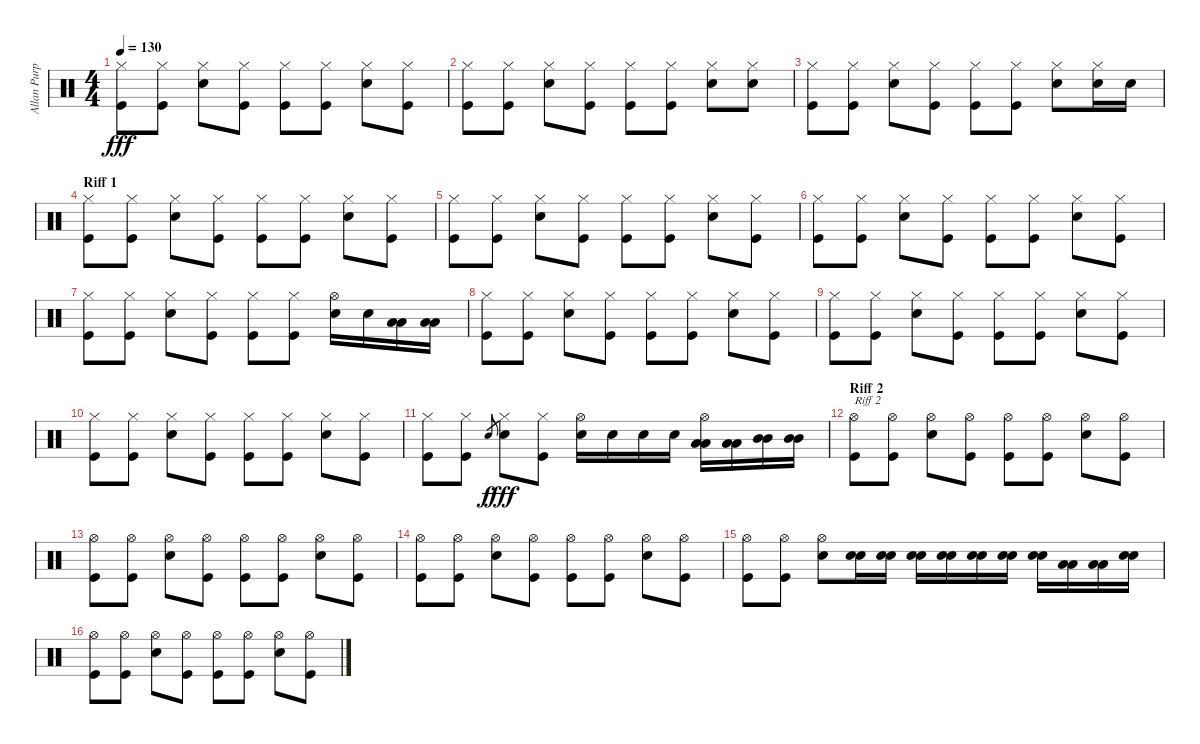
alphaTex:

\track ("Allan Purple" "Allan Purp") {instrument percussion}
\staff {score}
\articulation defaults
\ts (4 4)
\tempo 130
\clef neutral
\ks c
("Hi-Hat (closed)" "Kick (hit)").8{dy fff} ("Hi-Hat (closed)" "Kick (hit)").8 ("Hi-Hat (closed)" "Electric Snare (hit)").8 ("Hi-Hat (closed)" "Kick (hit)").8 ("Hi-Hat (closed)" "Kick (hit)").8 ("Hi-Hat (closed)" "Kick (hit)").8 ("Hi-Hat (closed)" "Electric Snare (hit)").8 ("Hi-Hat (closed)" "Kick (hit)").8 |
("Hi-Hat (closed)" "Kick (hit)").8 ("Hi-Hat (closed)" "Kick (hit)").8 ("Hi-Hat (closed)" "Electric Snare (hit)").8 ("Hi-Hat (closed)" "Kick (hit)").8 ("Hi-Hat (closed)" "Kick (hit)").8 ("Hi-Hat (closed)" "Kick (hit)").8 ("Hi-Hat (closed)" "Electric Snare (hit)").8 ("Hi-Hat (closed)" "Electric Snare (hit)").8 |
("Hi-Hat (closed)" "Kick (hit)").8 ("Hi-Hat (closed)" "Kick (hit)").8 ("Hi-Hat (closed)" "Electric Snare (hit)").8 ("Hi-Hat (closed)" "Kick (hit)").8 ("Hi-Hat (closed)" "Kick (hit)").8 ("Hi-Hat (closed)" "Kick (hit)").8 ("Hi-Hat (closed)" "Electric Snare (hit)").8 ("Hi-Hat (closed)" "Electric Snare (hit)").16 "Electric Snare (hit)".16 |
\section ("" "Riff 1")
("Hi-Hat (closed)" "Kick (hit)").8 ("Hi-Hat (closed)" "Kick (hit)").8 ("Hi-Hat (closed)" "Electric Snare (hit)").8 ("Hi-Hat (closed)" "Kick (hit)").8 ("Hi-Hat (closed)" "Kick (hit)").8 ("Hi-Hat (closed)" "Kick (hit)").8 ("Hi-Hat (closed)" "Electric Snare (hit)").8 ("Hi-Hat (closed)" "Kick (hit)").8 |
("Hi-Hat (closed)" "Kick (hit)").8 ("Hi-Hat (closed)" "Kick (hit)").8 ("Hi-Hat (closed)" "Electric Snare (hit)").8 ("Hi-Hat (closed)" "Kick (hit)").8 ("Hi-Hat (closed)" "Kick (hit)").8 ("Hi-Hat (closed)" "Kick (hit)").8 ("Hi-Hat (closed)" "Electric Snare (hit)").8 ("Hi-Hat (closed)" "Kick (hit)").8 |
("Hi-Hat (closed)" "Kick (hit)").8 ("Hi-Hat (closed)" "Kick (hit)").8 ("Hi-Hat (closed)" "Electric Snare (hit)").8 ("Hi-Hat (closed)" "Kick (hit)").8 ("Hi-Hat (closed)" "Kick (hit)").8 ("Hi-Hat (closed)" "Kick (hit)").8 ("Hi-Hat (closed)" "Electric Snare (hit)").8 ("Hi-Hat (closed)" "Kick (hit)").8 |
("Hi-Hat (closed)" "Kick (hit)").8 ("Hi-Hat (closed)" "Kick (hit)").8 ("Hi-Hat (closed)" "Electric Snare (hit)").8 ("Hi-Hat (closed)" "Kick (hit)").8 ("Hi-Hat (closed)" "Kick (hit)").8 ("Hi-Hat (closed)" "Kick (hit)").8 ("Hi-Hat (open)" "Electric Snare (hit)").16 "Electric Snare (hit)".16 ("Low Tom (hit)" "Low Tom (hit)").16 ("Low Tom (hit)" "Low Tom (hit)").16 |
("Hi-Hat (closed)" "Kick (hit)").8 ("Hi-Hat (closed)" "Kick (hit)").8 ("Hi-Hat (closed)" "Electric Snare (hit)").8 ("Hi-Hat (closed)" "Kick (hit)").8 ("Hi-Hat (closed)" "Kick (hit)").8 ("Hi-Hat (closed)" "Kick (hit)").8 ("Hi-Hat (closed)" "Electric Snare (hit)").8 ("Hi-Hat (closed)" "Kick (hit)").8 |
("Hi-Hat (closed)" "Kick (hit)").8 ("Hi-Hat (closed)" "Kick (hit)").8 ("Hi-Hat (closed)" "Electric Snare (hit)").8 ("Hi-Hat (closed)" "Kick (hit)").8 ("Hi-Hat (closed)" "Kick (hit)").8 ("Hi-Hat (closed)" "Kick (hit)").8 ("Hi-Hat (closed)" "Electric Snare (hit)").8 ("Hi-Hat (closed)" "Kick (hit)").8 |
("Hi-Hat (closed)" "Kick (hit)").8 ("Hi-Hat (closed)" "Kick (hit)").8 ("Hi-Hat (closed)" "Electric Snare (hit)").8 ("Hi-Hat (closed)" "Kick (hit)").8 ("Hi-Hat (closed)" "Kick (hit)").8 ("Hi-Hat (closed)" "Kick (hit)").8 ("Hi-Hat (closed)" "Electric Snare (hit)").8 ("Hi-Hat (closed)" "Kick (hit)").8 |
("Hi-Hat (closed)" "Kick (hit)").8 ("Hi-Hat (closed)" "Kick (hit)").8 "Electric Snare (hit)".8{gr dy f} ("Hi-Hat (closed)" "Electric Snare (hit)").8{dy fff} ("Hi-Hat (closed)" "Kick (hit)").8 ("Hi-Hat (open)" "Electric Snare (hit)").16 "Electric Snare (hit)".16 "Snare (hit) 2".16 "Snare (hit) 2".16 ("Hi-Hat (open)" "Low Tom (hit)" "Low Tom (hit)").16 ("Low Tom (hit)" "Low Tom (hit)").16 ("Mid Tom (hit)" "Mid Tom (hit)").16 ("Mid Tom (hit)" "Mid Tom (hit)").16 |
\section ("" "Riff 2")
("Hi-Hat (open)" "Kick (hit)").8{txt "Riff 2"} ("Hi-Hat (open)" "Kick (hit)").8 ("Hi-Hat (open)" "Electric Snare (hit)").8 ("Hi-Hat (open)" "Kick (hit)").8 ("Hi-Hat (open)" "Kick (hit)").8 ("Hi-Hat (open)" "Kick (hit)").8 ("Hi-Hat (open)" "Electric Snare (hit)").8 ("Hi-Hat (open)" "Kick (hit)").8 |
("Hi-Hat (open)" "Kick (hit)").8 ("Hi-Hat (open)" "Kick (hit)").8 ("Hi-Hat (open)" "Electric Snare (hit)").8 ("Hi-Hat (open)" "Kick (hit)").8 ("Hi-Hat (open)" "Kick (hit)").8 ("Hi-Hat (open)" "Kick (hit)").8 ("Hi-Hat (open)" "Electric Snare (hit)").8 ("Hi-Hat (open)" "Kick (hit)").8 |
("Hi-Hat (open)" "Kick (hit)").8 ("Hi-Hat (open)" "Kick (hit)").8 ("Hi-Hat (open)" "Electric Snare (hit)").8 ("Hi-Hat (open)" "Kick (hit)").8 ("Hi-Hat (open)" "Kick (hit)").8 ("Hi-Hat (open)" "Kick (hit)").8 ("Hi-Hat (open)" "Electric Snare (hit)").8 ("Hi-Hat (open)" "Kick (hit)").8 |
("Hi-Hat (open)" "Kick (hit)").8 ("Hi-Hat (open)" "Kick (hit)").8 ("Hi-Hat (open)" "Electric Snare (hit)").8 ("Electric Snare (hit)" "Electric Snare (hit)").16 ("Electric Snare (hit)" "Electric Snare (hit)").16 ("Snare (hit) 2" "Snare (hit) 2").16 ("Electric Snare (hit)" "Electric Snare (hit)").16 ("Electric Snare (hit)" "Electric Snare (hit)").16 ("Electric Snare (hit)" "Electric Snare (hit)").16 ("Snare (hit) 2" "Snare (hit) 2").16 ("Low Tom (hit)" "Low Tom (hit)").16 ("Low Tom (hit)" "Low Tom (hit)").16 ("Snare (hit) 2" "Snare (hit) 2").16 |
("Hi-Hat (open)" "Kick (hit)").8 ("Hi-Hat (open)" "Kick (hit)").8 ("Hi-Hat (open)" "Electric Snare (hit)").8 ("Hi-Hat (open)" "Kick (hit)").8 ("Hi-Hat (open)" "Kick (hit)").8 ("Hi-Hat (open)" "Kick (hit)").8 ("Hi-Hat (open)" "Electric Snare (hit)").8 ("Hi-Hat (open)" "Kick (hit)").8
